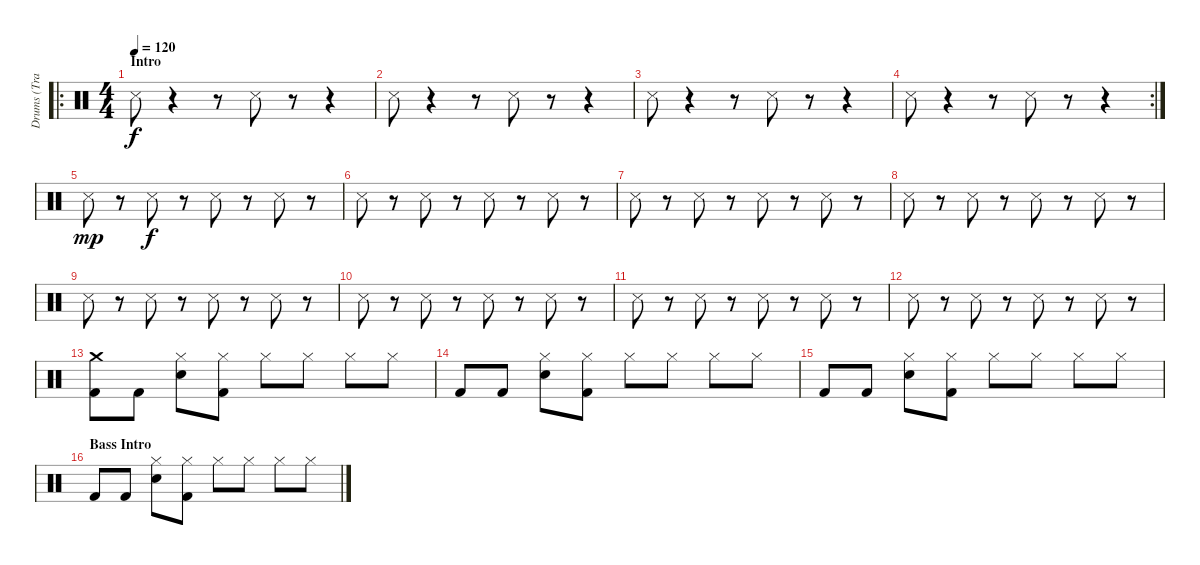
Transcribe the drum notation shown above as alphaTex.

\track ("Drums (Travis Barker)" "Drums (Tra") {instrument percussion}
\staff {score}
\articulation defaults
\ro
\ts (4 4)
\section ("" "Intro")
\tempo 120
\clef neutral
\ks c "Snare (side stick) 3".8{dy f}
r.4 r.8 "Snare (side stick) 3".8 r.8 r.4 |
"Snare (side stick) 3".8 r.4 r.8 "Snare (side stick) 3".8 r.8 r.4 |
"Snare (side stick) 3".8 r.4 r.8 "Snare (side stick) 3".8 r.8 r.4 |
\rc 2 "Snare (side stick) 3".8
r.4 r.8 "Snare (side stick) 3".8 r.8 r.4 |
"Snare (side stick) 3".8{dy mp} r.8 "Snare (side stick) 3".8{dy f} r.8 "Snare (side stick) 3".8 r.8 "Snare (side stick) 3".8 r.8 |
"Snare (side stick) 3".8 r.8 "Snare (side stick) 3".8 r.8 "Snare (side stick) 3".8 r.8 "Snare (side stick) 3".8 r.8 |
"Snare (side stick) 3".8 r.8 "Snare (side stick) 3".8 r.8 "Snare (side stick) 3".8 r.8 "Snare (side stick) 3".8 r.8 |
"Snare (side stick) 3".8 r.8 "Snare (side stick) 3".8 r.8 "Snare (side stick) 3".8 r.8 "Snare (side stick) 3".8 r.8 |
"Snare (side stick) 3".8 r.8 "Snare (side stick) 3".8 r.8 "Snare (side stick) 3".8 r.8 "Snare (side stick) 3".8 r.8 |
"Snare (side stick) 3".8 r.8 "Snare (side stick) 3".8 r.8 "Snare (side stick) 3".8 r.8 "Snare (side stick) 3".8 r.8 |
"Snare (side stick) 3".8 r.8 "Snare (side stick) 3".8 r.8 "Snare (side stick) 3".8 r.8 "Snare (side stick) 3".8 r.8 |
"Snare (side stick) 3".8 r.8 "Snare (side stick) 3".8 r.8 "Snare (side stick) 3".8 r.8 "Snare (side stick) 3".8 r.8 |
("Crash medium (hit)" "Kick (hit) 2").8 "Kick (hit) 2".8 ("Hi-Hat (closed)" "Snare (hit) 2").8 ("Hi-Hat (closed)" "Kick (hit) 2").8 "Hi-Hat (closed)".8 "Hi-Hat (closed)".8 "Hi-Hat (closed)".8 "Hi-Hat (closed)".8 |
"Kick (hit) 2".8 "Kick (hit) 2".8 ("Hi-Hat (closed)" "Snare (hit) 2").8 ("Hi-Hat (closed)" "Kick (hit) 2").8 "Hi-Hat (closed)".8 "Hi-Hat (closed)".8 "Hi-Hat (closed)".8 "Hi-Hat (closed)".8 |
"Kick (hit) 2".8 "Kick (hit) 2".8 ("Hi-Hat (closed)" "Snare (hit) 2").8 ("Hi-Hat (closed)" "Kick (hit) 2").8 "Hi-Hat (closed)".8 "Hi-Hat (closed)".8 "Hi-Hat (closed)".8 "Hi-Hat (closed)".8 |
\section ("" "Bass Intro")
"Kick (hit) 2".8 "Kick (hit) 2".8 ("Hi-Hat (closed)" "Snare (hit) 2").8 ("Hi-Hat (closed)" "Kick (hit) 2").8 "Hi-Hat (closed)".8 "Hi-Hat (closed)".8 "Hi-Hat (closed)".8 "Hi-Hat (closed)".8
